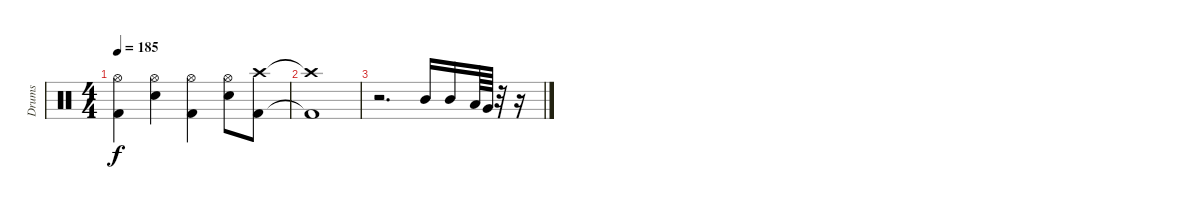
\track ("Drums" "Drums") {instrument percussion}
\staff {score}
\articulation defaults
\ts (4 4)
\tempo 185
\clef neutral
\ks c
("Hi-Hat (open)" "Kick (hit) 2").4{dy f} ("Hi-Hat (open)" "Snare (hit) 2").4 ("Hi-Hat (open)" "Kick (hit) 2").4 ("Hi-Hat (open)" "Snare (hit) 2").8 ("Crash high (hit)" "Kick (hit) 2").8 |
("Crash high (hit)"{t} "Kick (hit) 2"{t}).1 |
r.2{d} "Mid Tom (hit)".16 "Mid Tom (hit)".16 "Low Tom (hit)".64 "Very Low Tom (hit)".64 r.32 r.16
